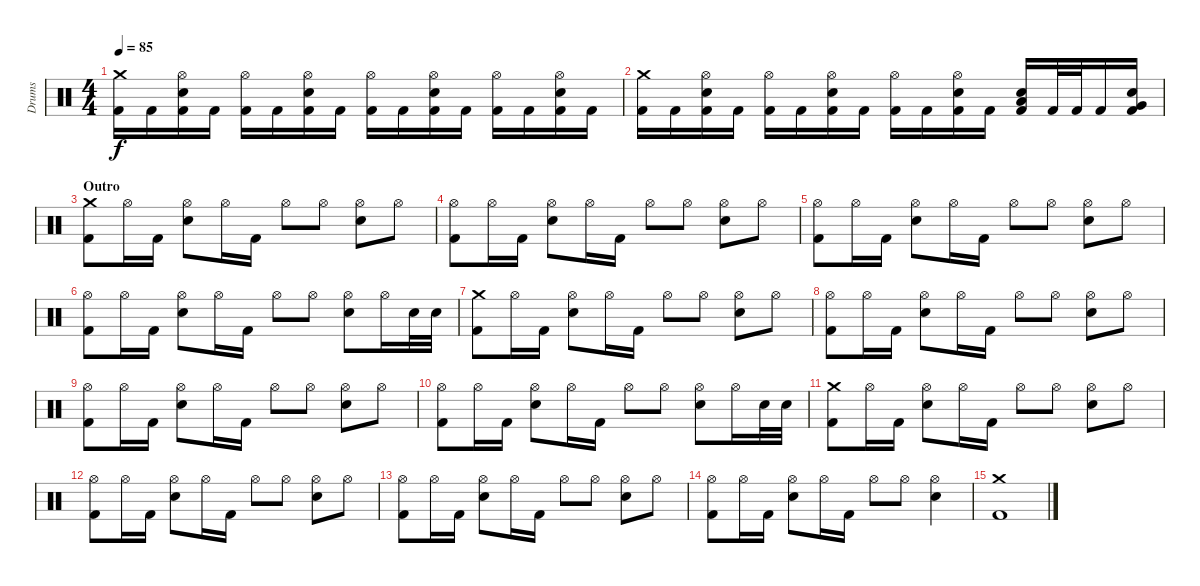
\track ("Drums" "Drums") {instrument percussion}
\staff {score}
\articulation defaults
\ts (4 4)
\tempo 85
\clef neutral
\ks c
("Crash medium (hit)" "Kick (hit) 2").16{dy f} "Kick (hit) 2".16 ("Hi-Hat (open)" "Electric Snare (hit)" "Kick (hit) 2").16 "Kick (hit) 2".16 ("Hi-Hat (open)" "Kick (hit) 2").16 "Kick (hit) 2".16 ("Hi-Hat (open)" "Electric Snare (hit)" "Kick (hit) 2").16 "Kick (hit) 2".16 ("Hi-Hat (open)" "Kick (hit) 2").16 "Kick (hit) 2".16 ("Hi-Hat (open)" "Electric Snare (hit)" "Kick (hit) 2").16 "Kick (hit) 2".16 ("Hi-Hat (open)" "Kick (hit) 2").16 "Kick (hit) 2".16 ("Hi-Hat (open)" "Electric Snare (hit)" "Kick (hit) 2").16 "Kick (hit) 2".16 |
("Crash medium (hit)" "Kick (hit) 2").16 "Kick (hit) 2".16 ("Hi-Hat (open)" "Electric Snare (hit)" "Kick (hit) 2").16 "Kick (hit) 2".16 ("Hi-Hat (open)" "Kick (hit) 2").16 "Kick (hit) 2".16 ("Hi-Hat (open)" "Electric Snare (hit)" "Kick (hit) 2").16 "Kick (hit) 2".16 ("Hi-Hat (open)" "Kick (hit) 2").16 "Kick (hit) 2".16 ("Hi-Hat (open)" "Electric Snare (hit)" "Kick (hit) 2").16 "Kick (hit) 2".16 ("Electric Snare (hit)" "Low Tom (hit)" "Kick (hit) 2").16 "Kick (hit) 2".32 "Kick (hit) 2".32 "Kick (hit) 2".16 ("Electric Snare (hit)" "Very Low Tom (hit)" "Kick (hit) 2").16 |
\section ("" "Outro")
("Crash medium (hit)" "Kick (hit) 2").8 "Hi-Hat (open)".16 "Kick (hit) 2".16 ("Hi-Hat (open)" "Electric Snare (hit)").8 "Hi-Hat (open)".16 "Kick (hit) 2".16 "Hi-Hat (open)".8 "Hi-Hat (open)".8 ("Hi-Hat (open)" "Electric Snare (hit)").8 "Hi-Hat (open)".8 |
("Hi-Hat (open)" "Kick (hit) 2").8 "Hi-Hat (open)".16 "Kick (hit) 2".16 ("Hi-Hat (open)" "Electric Snare (hit)").8 "Hi-Hat (open)".16 "Kick (hit) 2".16 "Hi-Hat (open)".8 "Hi-Hat (open)".8 ("Hi-Hat (open)" "Electric Snare (hit)").8 "Hi-Hat (open)".8 |
("Hi-Hat (open)" "Kick (hit) 2").8 "Hi-Hat (open)".16 "Kick (hit) 2".16 ("Hi-Hat (open)" "Electric Snare (hit)").8 "Hi-Hat (open)".16 "Kick (hit) 2".16 "Hi-Hat (open)".8 "Hi-Hat (open)".8 ("Hi-Hat (open)" "Electric Snare (hit)").8 "Hi-Hat (open)".8 |
("Hi-Hat (open)" "Kick (hit) 2").8 "Hi-Hat (open)".16 "Kick (hit) 2".16 ("Hi-Hat (open)" "Electric Snare (hit)").8 "Hi-Hat (open)".16 "Kick (hit) 2".16 "Hi-Hat (open)".8 "Hi-Hat (open)".8 ("Hi-Hat (open)" "Electric Snare (hit)").8 "Hi-Hat (open)".16 "Electric Snare (hit)".32 "Electric Snare (hit)".32 |
("Crash medium (hit)" "Kick (hit) 2").8 "Hi-Hat (open)".16 "Kick (hit) 2".16 ("Hi-Hat (open)" "Electric Snare (hit)").8 "Hi-Hat (open)".16 "Kick (hit) 2".16 "Hi-Hat (open)".8 "Hi-Hat (open)".8 ("Hi-Hat (open)" "Electric Snare (hit)").8 "Hi-Hat (open)".8 |
("Hi-Hat (open)" "Kick (hit) 2").8 "Hi-Hat (open)".16 "Kick (hit) 2".16 ("Hi-Hat (open)" "Electric Snare (hit)").8 "Hi-Hat (open)".16 "Kick (hit) 2".16 "Hi-Hat (open)".8 "Hi-Hat (open)".8 ("Hi-Hat (open)" "Electric Snare (hit)").8 "Hi-Hat (open)".8 |
("Hi-Hat (open)" "Kick (hit) 2").8 "Hi-Hat (open)".16 "Kick (hit) 2".16 ("Hi-Hat (open)" "Electric Snare (hit)").8 "Hi-Hat (open)".16 "Kick (hit) 2".16 "Hi-Hat (open)".8 "Hi-Hat (open)".8 ("Hi-Hat (open)" "Electric Snare (hit)").8 "Hi-Hat (open)".8 |
("Hi-Hat (open)" "Kick (hit) 2").8 "Hi-Hat (open)".16 "Kick (hit) 2".16 ("Hi-Hat (open)" "Electric Snare (hit)").8 "Hi-Hat (open)".16 "Kick (hit) 2".16 "Hi-Hat (open)".8 "Hi-Hat (open)".8 ("Hi-Hat (open)" "Electric Snare (hit)").8 "Hi-Hat (open)".16 "Electric Snare (hit)".32 "Electric Snare (hit)".32 |
("Crash medium (hit)" "Kick (hit) 2").8 "Hi-Hat (open)".16 "Kick (hit) 2".16 ("Hi-Hat (open)" "Electric Snare (hit)").8 "Hi-Hat (open)".16 "Kick (hit) 2".16 "Hi-Hat (open)".8 "Hi-Hat (open)".8 ("Hi-Hat (open)" "Electric Snare (hit)").8 "Hi-Hat (open)".8 |
("Hi-Hat (open)" "Kick (hit) 2").8 "Hi-Hat (open)".16 "Kick (hit) 2".16 ("Hi-Hat (open)" "Electric Snare (hit)").8 "Hi-Hat (open)".16 "Kick (hit) 2".16 "Hi-Hat (open)".8 "Hi-Hat (open)".8 ("Hi-Hat (open)" "Electric Snare (hit)").8 "Hi-Hat (open)".8 |
("Hi-Hat (open)" "Kick (hit) 2").8 "Hi-Hat (open)".16 "Kick (hit) 2".16 ("Hi-Hat (open)" "Electric Snare (hit)").8 "Hi-Hat (open)".16 "Kick (hit) 2".16 "Hi-Hat (open)".8 "Hi-Hat (open)".8 ("Hi-Hat (open)" "Electric Snare (hit)").8 "Hi-Hat (open)".8 |
("Hi-Hat (open)" "Kick (hit) 2").8 "Hi-Hat (open)".16 "Kick (hit) 2".16 ("Hi-Hat (open)" "Electric Snare (hit)").8 "Hi-Hat (open)".16 "Kick (hit) 2".16 "Hi-Hat (open)".8 "Hi-Hat (open)".8 ("Hi-Hat (open)" "Electric Snare (hit)").4 |
("Crash medium (hit)" "Kick (hit) 2").1
